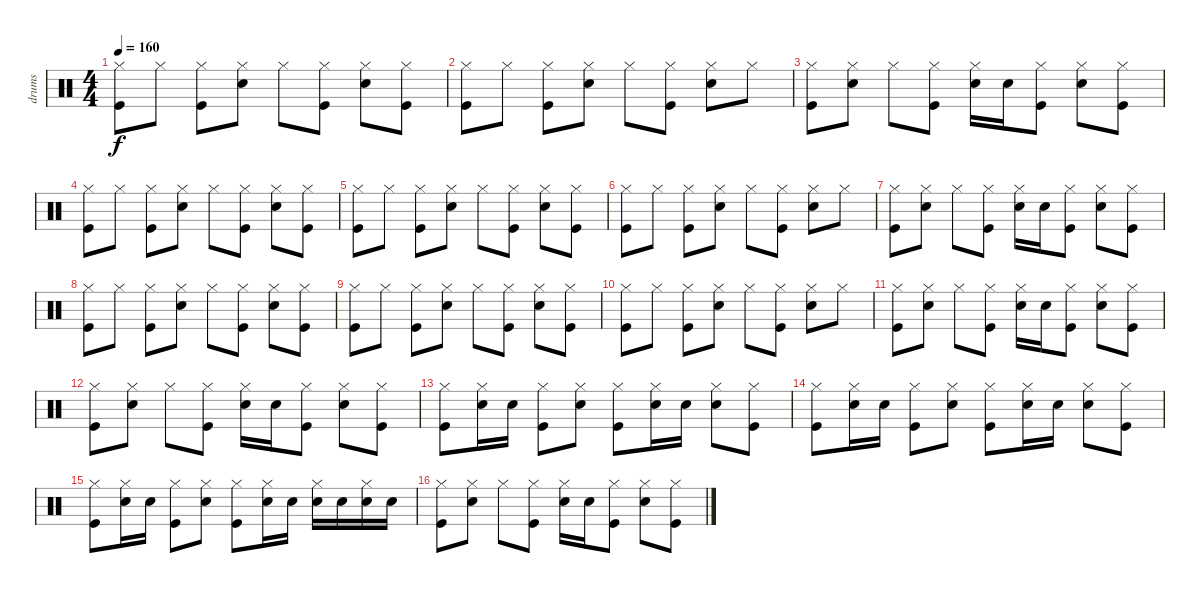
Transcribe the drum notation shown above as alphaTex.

\track ("drums" "drums") {instrument percussion}
\staff {score}
\articulation defaults
\ts (4 4)
\tempo 160
\clef neutral
\ks c
("Hi-Hat (closed)" "Kick (hit)").8{dy f} "Hi-Hat (closed)".8 ("Hi-Hat (closed)" "Kick (hit)").8 ("Hi-Hat (closed)" "Electric Snare (hit)").8 "Hi-Hat (closed)".8 ("Hi-Hat (closed)" "Kick (hit)").8 ("Hi-Hat (closed)" "Electric Snare (hit)").8 ("Hi-Hat (closed)" "Kick (hit)").8 |
("Hi-Hat (closed)" "Kick (hit)").8 "Hi-Hat (closed)".8 ("Hi-Hat (closed)" "Kick (hit)").8 ("Hi-Hat (closed)" "Electric Snare (hit)").8 "Hi-Hat (closed)".8 ("Hi-Hat (closed)" "Kick (hit)").8 ("Hi-Hat (closed)" "Electric Snare (hit)").8 "Hi-Hat (closed)".8 |
("Hi-Hat (closed)" "Kick (hit)").8 ("Hi-Hat (closed)" "Electric Snare (hit)").8 "Hi-Hat (closed)".8 ("Hi-Hat (closed)" "Kick (hit)").8 ("Hi-Hat (closed)" "Electric Snare (hit)").16 "Electric Snare (hit)".16 ("Hi-Hat (closed)" "Kick (hit)").8 ("Hi-Hat (closed)" "Electric Snare (hit)").8 ("Hi-Hat (closed)" "Kick (hit)").8 |
\section ("" "")
("Hi-Hat (closed)" "Kick (hit)").8 "Hi-Hat (closed)".8 ("Hi-Hat (closed)" "Kick (hit)").8 ("Hi-Hat (closed)" "Electric Snare (hit)").8 "Hi-Hat (closed)".8 ("Hi-Hat (closed)" "Kick (hit)").8 ("Hi-Hat (closed)" "Electric Snare (hit)").8 ("Hi-Hat (closed)" "Kick (hit)").8 |
("Hi-Hat (closed)" "Kick (hit)").8 "Hi-Hat (closed)".8 ("Hi-Hat (closed)" "Kick (hit)").8 ("Hi-Hat (closed)" "Electric Snare (hit)").8 "Hi-Hat (closed)".8 ("Hi-Hat (closed)" "Kick (hit)").8 ("Hi-Hat (closed)" "Electric Snare (hit)").8 ("Hi-Hat (closed)" "Kick (hit)").8 |
("Hi-Hat (closed)" "Kick (hit)").8 "Hi-Hat (closed)".8 ("Hi-Hat (closed)" "Kick (hit)").8 ("Hi-Hat (closed)" "Electric Snare (hit)").8 "Hi-Hat (closed)".8 ("Hi-Hat (closed)" "Kick (hit)").8 ("Hi-Hat (closed)" "Electric Snare (hit)").8 "Hi-Hat (closed)".8 |
("Hi-Hat (closed)" "Kick (hit)").8 ("Hi-Hat (closed)" "Electric Snare (hit)").8 "Hi-Hat (closed)".8 ("Hi-Hat (closed)" "Kick (hit)").8 ("Hi-Hat (closed)" "Electric Snare (hit)").16 "Electric Snare (hit)".16 ("Hi-Hat (closed)" "Kick (hit)").8 ("Hi-Hat (closed)" "Electric Snare (hit)").8 ("Hi-Hat (closed)" "Kick (hit)").8 |
\section ("" "")
("Hi-Hat (closed)" "Kick (hit)").8 "Hi-Hat (closed)".8 ("Hi-Hat (closed)" "Kick (hit)").8 ("Hi-Hat (closed)" "Electric Snare (hit)").8 "Hi-Hat (closed)".8 ("Hi-Hat (closed)" "Kick (hit)").8 ("Hi-Hat (closed)" "Electric Snare (hit)").8 ("Hi-Hat (closed)" "Kick (hit)").8 |
("Hi-Hat (closed)" "Kick (hit)").8 "Hi-Hat (closed)".8 ("Hi-Hat (closed)" "Kick (hit)").8 ("Hi-Hat (closed)" "Electric Snare (hit)").8 "Hi-Hat (closed)".8 ("Hi-Hat (closed)" "Kick (hit)").8 ("Hi-Hat (closed)" "Electric Snare (hit)").8 ("Hi-Hat (closed)" "Kick (hit)").8 |
("Hi-Hat (closed)" "Kick (hit)").8 "Hi-Hat (closed)".8 ("Hi-Hat (closed)" "Kick (hit)").8 ("Hi-Hat (closed)" "Electric Snare (hit)").8 "Hi-Hat (closed)".8 ("Hi-Hat (closed)" "Kick (hit)").8 ("Hi-Hat (closed)" "Electric Snare (hit)").8 "Hi-Hat (closed)".8 |
("Hi-Hat (closed)" "Kick (hit)").8 ("Hi-Hat (closed)" "Electric Snare (hit)").8 "Hi-Hat (closed)".8 ("Hi-Hat (closed)" "Kick (hit)").8 ("Hi-Hat (closed)" "Electric Snare (hit)").16 "Electric Snare (hit)".16 ("Hi-Hat (closed)" "Kick (hit)").8 ("Hi-Hat (closed)" "Electric Snare (hit)").8 ("Hi-Hat (closed)" "Kick (hit)").8 |
\section ("" "")
("Hi-Hat (closed)" "Kick (hit)").8 ("Hi-Hat (closed)" "Electric Snare (hit)").8 "Hi-Hat (closed)".8 ("Hi-Hat (closed)" "Kick (hit)").8 ("Hi-Hat (closed)" "Electric Snare (hit)").16 "Electric Snare (hit)".16 ("Hi-Hat (closed)" "Kick (hit)").8 ("Hi-Hat (closed)" "Electric Snare (hit)").8 ("Hi-Hat (closed)" "Kick (hit)").8 |
("Hi-Hat (closed)" "Kick (hit)").8 ("Hi-Hat (closed)" "Electric Snare (hit)").16 "Electric Snare (hit)".16 ("Hi-Hat (closed)" "Kick (hit)").8 ("Hi-Hat (closed)" "Electric Snare (hit)").8 ("Hi-Hat (closed)" "Kick (hit)").8 ("Hi-Hat (closed)" "Electric Snare (hit)").16 "Electric Snare (hit)".16 ("Hi-Hat (closed)" "Electric Snare (hit)").8 ("Hi-Hat (closed)" "Kick (hit)").8 |
("Hi-Hat (closed)" "Kick (hit)").8 ("Hi-Hat (closed)" "Electric Snare (hit)").16 "Electric Snare (hit)".16 ("Hi-Hat (closed)" "Kick (hit)").8 ("Hi-Hat (closed)" "Electric Snare (hit)").8 ("Hi-Hat (closed)" "Kick (hit)").8 ("Hi-Hat (closed)" "Electric Snare (hit)").16 "Electric Snare (hit)".16 ("Hi-Hat (closed)" "Electric Snare (hit)").8 ("Hi-Hat (closed)" "Kick (hit)").8 |
("Hi-Hat (closed)" "Kick (hit)").8 ("Hi-Hat (closed)" "Electric Snare (hit)").16 "Electric Snare (hit)".16 ("Hi-Hat (closed)" "Kick (hit)").8 ("Hi-Hat (closed)" "Electric Snare (hit)").8 ("Hi-Hat (closed)" "Kick (hit)").8 ("Hi-Hat (closed)" "Electric Snare (hit)").16 "Electric Snare (hit)".16 ("Hi-Hat (closed)" "Electric Snare (hit)").16 "Electric Snare (hit)".16 ("Hi-Hat (closed)" "Electric Snare (hit)").16 "Electric Snare (hit)".16 |
("Hi-Hat (closed)" "Kick (hit)").8 ("Hi-Hat (closed)" "Electric Snare (hit)").8 "Hi-Hat (closed)".8 ("Hi-Hat (closed)" "Kick (hit)").8 ("Hi-Hat (closed)" "Electric Snare (hit)").16 "Electric Snare (hit)".16 ("Hi-Hat (closed)" "Kick (hit)").8 ("Hi-Hat (closed)" "Electric Snare (hit)").8 ("Hi-Hat (closed)" "Kick (hit)").8
